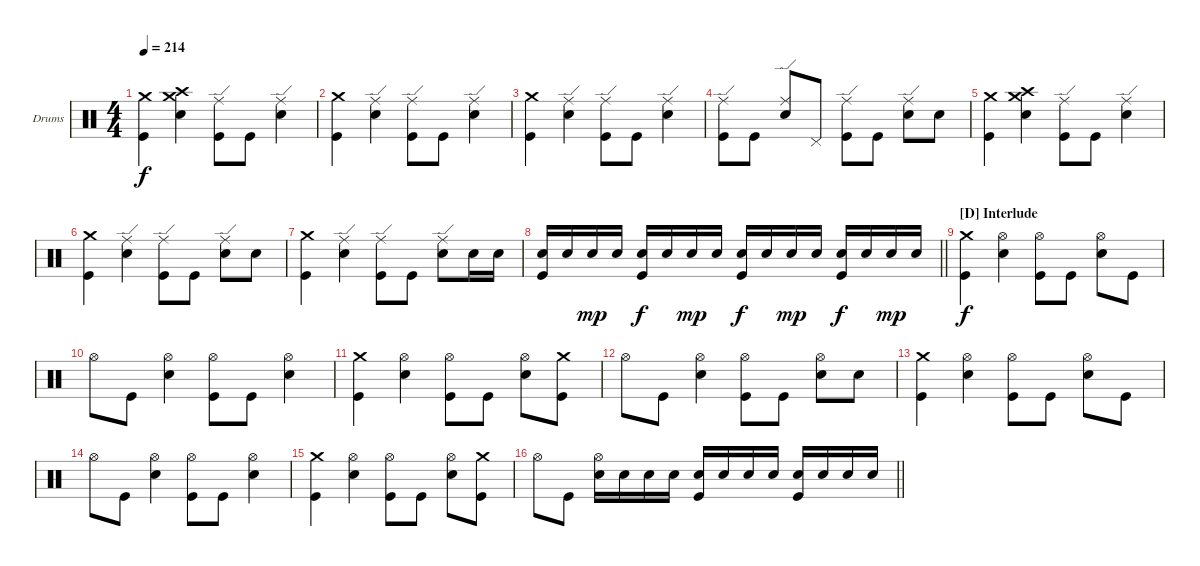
\bracketExtendMode groupsimilarinstruments
\firstSystemTrackNameOrientation horizontal
\otherSystemsTrackNameOrientation horizontal
\track ("Drumkit" "Drums") {instrument percussion}
\staff {score}
\articulation defaults
\ts (4 4)
\tempo 214
\clef neutral
\ks c
("Crash medium (hit)" "Kick (hit)").4{dy f} ("Snare (hit) 2" "Crash medium (hit)" "Crash high (hit)").4 ("Ride (edge)" "Kick (hit)").8 "Kick (hit)".8 ("Ride (edge)" "Snare (hit) 2").4 |
("Crash medium (hit)" "Kick (hit)").4 ("Ride (edge)" "Snare (hit) 2").4 ("Ride (edge)" "Kick (hit)").8 "Kick (hit)".8 ("Ride (edge)" "Snare (hit) 2").4 |
("Crash medium (hit)" "Kick (hit)").4 ("Ride (edge)" "Snare (hit) 2").4 ("Ride (edge)" "Kick (hit)").8 "Kick (hit)".8 ("Ride (edge)" "Snare (hit) 2").4 |
("Ride (edge)" "Kick (hit)").8 "Kick (hit)".8 ("Snare (hit) 2" "Ride (edge)").8 "Pedal Hi-Hat (hit)".8 ("Kick (hit)" "Ride (edge)").8 "Kick (hit)".8 ("Snare (hit) 2" "Ride (edge)").8 "Snare (hit) 2".8 |
("Crash medium (hit)" "Kick (hit)").4 ("Snare (hit) 2" "Crash medium (hit)" "Crash high (hit)").4 ("Ride (edge)" "Kick (hit)").8 "Kick (hit)".8 ("Ride (edge)" "Snare (hit) 2").4 |
("Crash medium (hit)" "Kick (hit)").4 ("Ride (edge)" "Snare (hit) 2").4 ("Ride (edge)" "Kick (hit)").8 "Kick (hit)".8 ("Ride (edge)" "Snare (hit) 2").8 "Snare (hit) 2".8 |
("Crash medium (hit)" "Kick (hit)").4 ("Ride (edge)" "Snare (hit) 2").4 ("Ride (edge)" "Kick (hit)").8 "Kick (hit)".8 ("Ride (edge)" "Snare (hit) 2").8 "Snare (hit) 2".16 "Snare (hit) 2".16 |
\barLineRight lightlight
("Kick (hit)" "Snare (hit) 2").16 "Snare (hit) 2".16 "Snare (hit) 2".16{dy mp} "Snare (hit) 2".16 ("Kick (hit)" "Snare (hit) 2").16{dy f} "Snare (hit) 2".16 "Snare (hit) 2".16{dy mp} "Snare (hit) 2".16 ("Kick (hit)" "Snare (hit) 2").16{dy f} "Snare (hit) 2".16 "Snare (hit) 2".16{dy mp} "Snare (hit) 2".16 ("Kick (hit)" "Snare (hit) 2").16{dy f} "Snare (hit) 2".16 "Snare (hit) 2".16{dy mp} "Snare (hit) 2".16 |
\section ("D" "Interlude")
("Kick (hit)" "Crash medium (hit)").4{dy f} ("Snare (hit) 2" "Hi-Hat (open)").4 ("Kick (hit)" "Hi-Hat (open)").8 "Kick (hit)".8 ("Snare (hit) 2" "Hi-Hat (open)").8 "Kick (hit)".8 |
"Hi-Hat (open)".8 "Kick (hit)".8 ("Snare (hit) 2" "Hi-Hat (open)").4 ("Kick (hit)" "Hi-Hat (open)").8 "Kick (hit)".8 ("Snare (hit) 2" "Hi-Hat (open)").4 |
("Kick (hit)" "Crash medium (hit)").4 ("Snare (hit) 2" "Hi-Hat (open)").4 ("Kick (hit)" "Hi-Hat (open)").8 "Kick (hit)".8 ("Snare (hit) 2" "Hi-Hat (open)").8 ("Kick (hit)" "Crash medium (hit)").8 |
"Hi-Hat (open)".8 "Kick (hit)".8 ("Snare (hit) 2" "Hi-Hat (open)").4 ("Kick (hit)" "Hi-Hat (open)").8 "Kick (hit)".8 ("Snare (hit) 2" "Hi-Hat (open)").8 "Snare (hit) 2".8 |
("Kick (hit)" "Crash medium (hit)").4 ("Snare (hit) 2" "Hi-Hat (open)").4 ("Kick (hit)" "Hi-Hat (open)").8 "Kick (hit)".8 ("Snare (hit) 2" "Hi-Hat (open)").8 "Kick (hit)".8 |
"Hi-Hat (open)".8 "Kick (hit)".8 ("Snare (hit) 2" "Hi-Hat (open)").4 ("Kick (hit)" "Hi-Hat (open)").8 "Kick (hit)".8 ("Snare (hit) 2" "Hi-Hat (open)").4 |
("Kick (hit)" "Crash medium (hit)").4 ("Snare (hit) 2" "Hi-Hat (open)").4 ("Kick (hit)" "Hi-Hat (open)").8 "Kick (hit)".8 ("Snare (hit) 2" "Hi-Hat (open)").8 ("Kick (hit)" "Crash medium (hit)").8 |
\barLineRight lightlight "Hi-Hat (open)".8 "Kick (hit)".8
("Snare (hit) 2" "Hi-Hat (open)").16 "Snare (hit) 2".16 "Snare (hit) 2".16 "Snare (hit) 2".16 ("Snare (hit) 2" "Kick (hit)").16 "Snare (hit) 2".16 "Snare (hit) 2".16 "Snare (hit) 2".16 ("Snare (hit) 2" "Kick (hit)").16 "Snare (hit) 2".16 "Snare (hit) 2".16 "Snare (hit) 2".16
